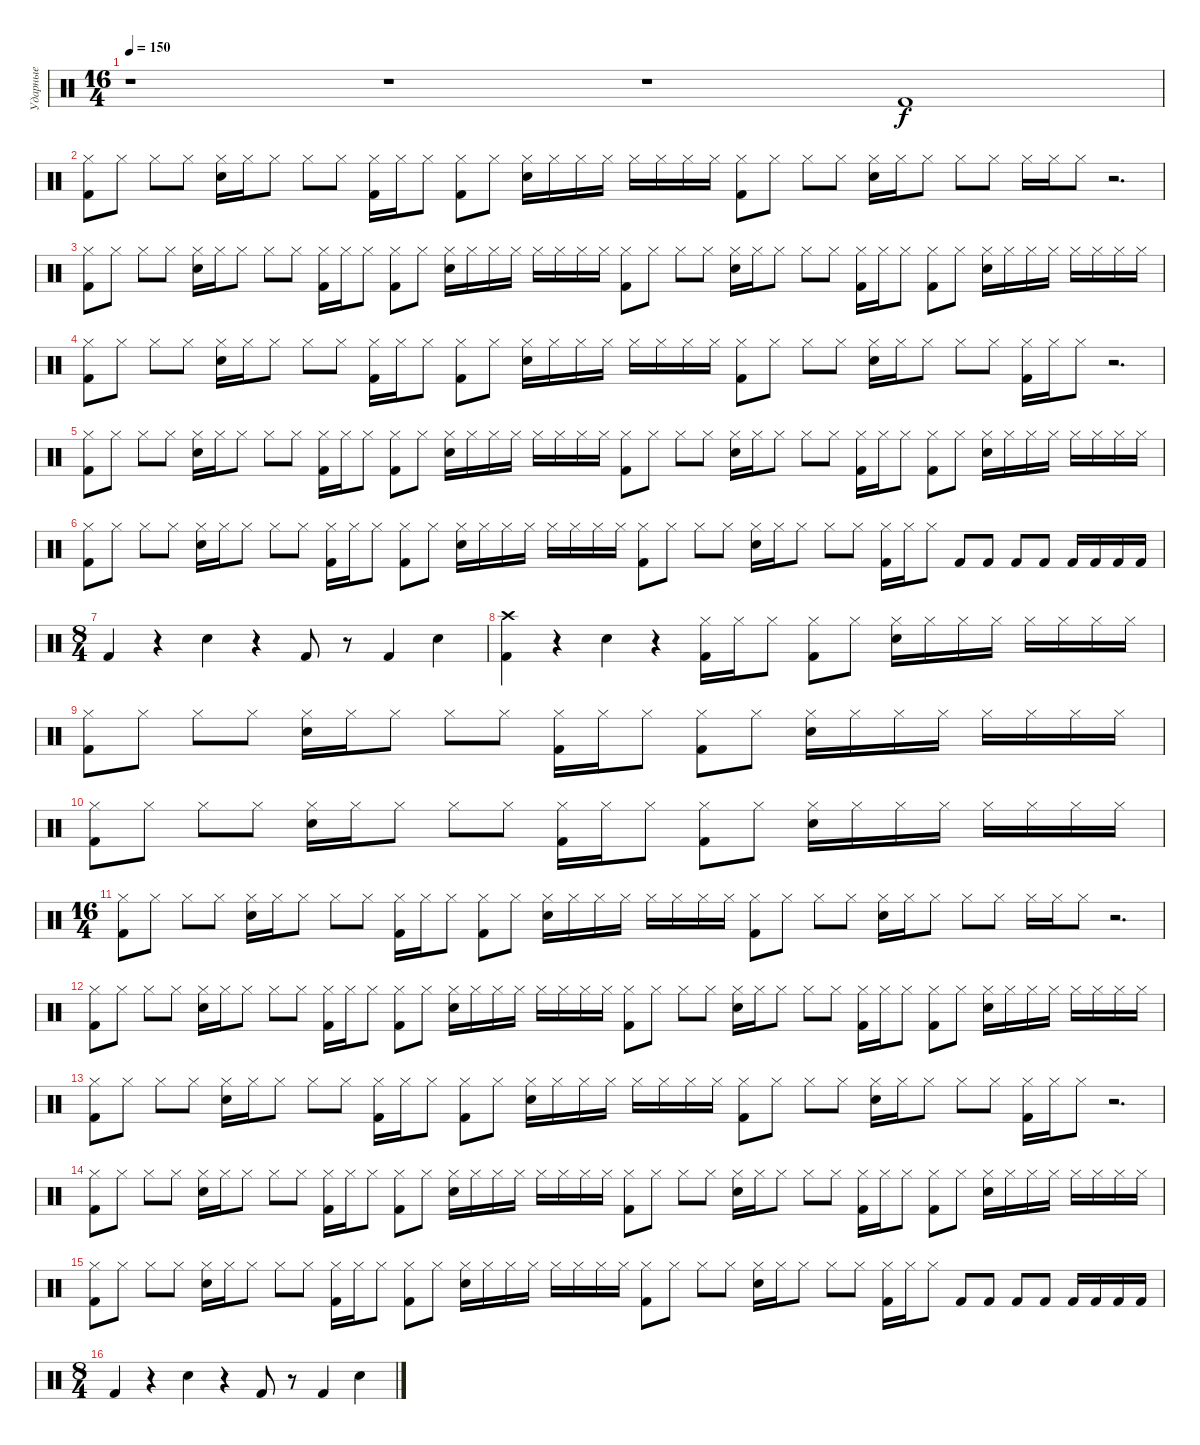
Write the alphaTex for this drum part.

\track ("Ударные" "Ударные") {instrument percussion}
\staff {score}
\articulation defaults
\ts (16 4)
\tempo 150
\clef neutral
\ks c
r.1{dy f} r.1 r.1 "Kick (hit) 2".1 |
("Hi-Hat (closed)" "Kick (hit) 2").8 "Hi-Hat (closed)".8 "Hi-Hat (closed)".8 "Hi-Hat (closed)".8 ("Hi-Hat (closed)" "Electric Snare (hit)").16 "Hi-Hat (closed)".16 "Hi-Hat (closed)".8 "Hi-Hat (closed)".8 "Hi-Hat (closed)".8 ("Hi-Hat (closed)" "Kick (hit) 2").16 "Hi-Hat (closed)".16 "Hi-Hat (closed)".8 ("Hi-Hat (closed)" "Kick (hit) 2").8 "Hi-Hat (closed)".8 ("Hi-Hat (closed)" "Electric Snare (hit)").16 "Hi-Hat (closed)".16 "Hi-Hat (closed)".16 "Hi-Hat (closed)".16 "Hi-Hat (closed)".16 "Hi-Hat (closed)".16 "Hi-Hat (closed)".16 "Hi-Hat (closed)".16 ("Hi-Hat (closed)" "Kick (hit) 2").8 "Hi-Hat (closed)".8 "Hi-Hat (closed)".8 "Hi-Hat (closed)".8 ("Hi-Hat (closed)" "Electric Snare (hit)").16 "Hi-Hat (closed)".16 "Hi-Hat (closed)".8 "Hi-Hat (closed)".8 "Hi-Hat (closed)".8 "Hi-Hat (closed)".16 "Hi-Hat (closed)".16 "Hi-Hat (closed)".8 r.2{d} |
("Hi-Hat (closed)" "Kick (hit) 2").8 "Hi-Hat (closed)".8 "Hi-Hat (closed)".8 "Hi-Hat (closed)".8 ("Hi-Hat (closed)" "Electric Snare (hit)").16 "Hi-Hat (closed)".16 "Hi-Hat (closed)".8 "Hi-Hat (closed)".8 "Hi-Hat (closed)".8 ("Hi-Hat (closed)" "Kick (hit) 2").16 "Hi-Hat (closed)".16 "Hi-Hat (closed)".8 ("Hi-Hat (closed)" "Kick (hit) 2").8 "Hi-Hat (closed)".8 ("Hi-Hat (closed)" "Electric Snare (hit)").16 "Hi-Hat (closed)".16 "Hi-Hat (closed)".16 "Hi-Hat (closed)".16 "Hi-Hat (closed)".16 "Hi-Hat (closed)".16 "Hi-Hat (closed)".16 "Hi-Hat (closed)".16 ("Hi-Hat (closed)" "Kick (hit) 2").8 "Hi-Hat (closed)".8 "Hi-Hat (closed)".8 "Hi-Hat (closed)".8 ("Hi-Hat (closed)" "Electric Snare (hit)").16 "Hi-Hat (closed)".16 "Hi-Hat (closed)".8 "Hi-Hat (closed)".8 "Hi-Hat (closed)".8 ("Hi-Hat (closed)" "Kick (hit) 2").16 "Hi-Hat (closed)".16 "Hi-Hat (closed)".8 ("Hi-Hat (closed)" "Kick (hit) 2").8 "Hi-Hat (closed)".8 ("Hi-Hat (closed)" "Electric Snare (hit)").16 "Hi-Hat (closed)".16 "Hi-Hat (closed)".16 "Hi-Hat (closed)".16 "Hi-Hat (closed)".16 "Hi-Hat (closed)".16 "Hi-Hat (closed)".16 "Hi-Hat (closed)".16 |
("Hi-Hat (closed)" "Kick (hit) 2").8 "Hi-Hat (closed)".8 "Hi-Hat (closed)".8 "Hi-Hat (closed)".8 ("Hi-Hat (closed)" "Electric Snare (hit)").16 "Hi-Hat (closed)".16 "Hi-Hat (closed)".8 "Hi-Hat (closed)".8 "Hi-Hat (closed)".8 ("Hi-Hat (closed)" "Kick (hit) 2").16 "Hi-Hat (closed)".16 "Hi-Hat (closed)".8 ("Hi-Hat (closed)" "Kick (hit) 2").8 "Hi-Hat (closed)".8 ("Hi-Hat (closed)" "Electric Snare (hit)").16 "Hi-Hat (closed)".16 "Hi-Hat (closed)".16 "Hi-Hat (closed)".16 "Hi-Hat (closed)".16 "Hi-Hat (closed)".16 "Hi-Hat (closed)".16 "Hi-Hat (closed)".16 ("Hi-Hat (closed)" "Kick (hit) 2").8 "Hi-Hat (closed)".8 "Hi-Hat (closed)".8 "Hi-Hat (closed)".8 ("Hi-Hat (closed)" "Electric Snare (hit)").16 "Hi-Hat (closed)".16 "Hi-Hat (closed)".8 "Hi-Hat (closed)".8 "Hi-Hat (closed)".8 ("Hi-Hat (closed)" "Kick (hit) 2").16 "Hi-Hat (closed)".16 "Hi-Hat (closed)".8 r.2{d} |
("Hi-Hat (closed)" "Kick (hit) 2").8 "Hi-Hat (closed)".8 "Hi-Hat (closed)".8 "Hi-Hat (closed)".8 ("Hi-Hat (closed)" "Electric Snare (hit)").16 "Hi-Hat (closed)".16 "Hi-Hat (closed)".8 "Hi-Hat (closed)".8 "Hi-Hat (closed)".8 ("Hi-Hat (closed)" "Kick (hit) 2").16 "Hi-Hat (closed)".16 "Hi-Hat (closed)".8 ("Hi-Hat (closed)" "Kick (hit) 2").8 "Hi-Hat (closed)".8 ("Hi-Hat (closed)" "Electric Snare (hit)").16 "Hi-Hat (closed)".16 "Hi-Hat (closed)".16 "Hi-Hat (closed)".16 "Hi-Hat (closed)".16 "Hi-Hat (closed)".16 "Hi-Hat (closed)".16 "Hi-Hat (closed)".16 ("Hi-Hat (closed)" "Kick (hit) 2").8 "Hi-Hat (closed)".8 "Hi-Hat (closed)".8 "Hi-Hat (closed)".8 ("Hi-Hat (closed)" "Electric Snare (hit)").16 "Hi-Hat (closed)".16 "Hi-Hat (closed)".8 "Hi-Hat (closed)".8 "Hi-Hat (closed)".8 ("Hi-Hat (closed)" "Kick (hit) 2").16 "Hi-Hat (closed)".16 "Hi-Hat (closed)".8 ("Hi-Hat (closed)" "Kick (hit) 2").8 "Hi-Hat (closed)".8 ("Hi-Hat (closed)" "Electric Snare (hit)").16 "Hi-Hat (closed)".16 "Hi-Hat (closed)".16 "Hi-Hat (closed)".16 "Hi-Hat (closed)".16 "Hi-Hat (closed)".16 "Hi-Hat (closed)".16 "Hi-Hat (closed)".16 |
("Hi-Hat (closed)" "Kick (hit) 2").8 "Hi-Hat (closed)".8 "Hi-Hat (closed)".8 "Hi-Hat (closed)".8 ("Hi-Hat (closed)" "Electric Snare (hit)").16 "Hi-Hat (closed)".16 "Hi-Hat (closed)".8 "Hi-Hat (closed)".8 "Hi-Hat (closed)".8 ("Hi-Hat (closed)" "Kick (hit) 2").16 "Hi-Hat (closed)".16 "Hi-Hat (closed)".8 ("Hi-Hat (closed)" "Kick (hit) 2").8 "Hi-Hat (closed)".8 ("Hi-Hat (closed)" "Electric Snare (hit)").16 "Hi-Hat (closed)".16 "Hi-Hat (closed)".16 "Hi-Hat (closed)".16 "Hi-Hat (closed)".16 "Hi-Hat (closed)".16 "Hi-Hat (closed)".16 "Hi-Hat (closed)".16 ("Hi-Hat (closed)" "Kick (hit) 2").8 "Hi-Hat (closed)".8 "Hi-Hat (closed)".8 "Hi-Hat (closed)".8 ("Hi-Hat (closed)" "Electric Snare (hit)").16 "Hi-Hat (closed)".16 "Hi-Hat (closed)".8 "Hi-Hat (closed)".8 "Hi-Hat (closed)".8 ("Hi-Hat (closed)" "Kick (hit) 2").16 "Hi-Hat (closed)".16 "Hi-Hat (closed)".8 "Kick (hit) 2".8 "Kick (hit) 2".8 "Kick (hit) 2".8 "Kick (hit) 2".8 "Kick (hit) 2".16 "Kick (hit) 2".16 "Kick (hit) 2".16 "Kick (hit) 2".16 |
\ts (8 4)
"Kick (hit) 2".4{volume 7} r.4 "Electric Snare (hit)".4 r.4 "Kick (hit) 2".8 r.8 "Kick (hit) 2".4 "Electric Snare (hit)".4 |
("Crash high (hit)" "Kick (hit) 2").4 r.4 "Electric Snare (hit)".4 r.4 ("Hi-Hat (closed)" "Kick (hit) 2").16{volume 13} "Hi-Hat (closed)".16 "Hi-Hat (closed)".8 ("Hi-Hat (closed)" "Kick (hit) 2").8 "Hi-Hat (closed)".8 ("Hi-Hat (closed)" "Electric Snare (hit)").16 "Hi-Hat (closed)".16 "Hi-Hat (closed)".16 "Hi-Hat (closed)".16 "Hi-Hat (closed)".16 "Hi-Hat (closed)".16 "Hi-Hat (closed)".16 "Hi-Hat (closed)".16 |
("Hi-Hat (closed)" "Kick (hit) 2").8 "Hi-Hat (closed)".8 "Hi-Hat (closed)".8 "Hi-Hat (closed)".8 ("Hi-Hat (closed)" "Electric Snare (hit)").16 "Hi-Hat (closed)".16 "Hi-Hat (closed)".8 "Hi-Hat (closed)".8 "Hi-Hat (closed)".8 ("Hi-Hat (closed)" "Kick (hit) 2").16 "Hi-Hat (closed)".16 "Hi-Hat (closed)".8 ("Hi-Hat (closed)" "Kick (hit) 2").8 "Hi-Hat (closed)".8 ("Hi-Hat (closed)" "Electric Snare (hit)").16 "Hi-Hat (closed)".16 "Hi-Hat (closed)".16 "Hi-Hat (closed)".16 "Hi-Hat (closed)".16 "Hi-Hat (closed)".16 "Hi-Hat (closed)".16 "Hi-Hat (closed)".16 |
("Hi-Hat (closed)" "Kick (hit) 2").8 "Hi-Hat (closed)".8 "Hi-Hat (closed)".8 "Hi-Hat (closed)".8 ("Hi-Hat (closed)" "Electric Snare (hit)").16 "Hi-Hat (closed)".16 "Hi-Hat (closed)".8 "Hi-Hat (closed)".8 "Hi-Hat (closed)".8 ("Hi-Hat (closed)" "Kick (hit) 2").16 "Hi-Hat (closed)".16 "Hi-Hat (closed)".8 ("Hi-Hat (closed)" "Kick (hit) 2").8 "Hi-Hat (closed)".8 ("Hi-Hat (closed)" "Electric Snare (hit)").16 "Hi-Hat (closed)".16 "Hi-Hat (closed)".16 "Hi-Hat (closed)".16 "Hi-Hat (closed)".16 "Hi-Hat (closed)".16 "Hi-Hat (closed)".16 "Hi-Hat (closed)".16 |
\ts (16 4)
("Hi-Hat (closed)" "Kick (hit) 2").8 "Hi-Hat (closed)".8 "Hi-Hat (closed)".8 "Hi-Hat (closed)".8 ("Hi-Hat (closed)" "Electric Snare (hit)").16 "Hi-Hat (closed)".16 "Hi-Hat (closed)".8 "Hi-Hat (closed)".8 "Hi-Hat (closed)".8 ("Hi-Hat (closed)" "Kick (hit) 2").16 "Hi-Hat (closed)".16 "Hi-Hat (closed)".8 ("Hi-Hat (closed)" "Kick (hit) 2").8 "Hi-Hat (closed)".8 ("Hi-Hat (closed)" "Electric Snare (hit)").16 "Hi-Hat (closed)".16 "Hi-Hat (closed)".16 "Hi-Hat (closed)".16 "Hi-Hat (closed)".16 "Hi-Hat (closed)".16 "Hi-Hat (closed)".16 "Hi-Hat (closed)".16 ("Hi-Hat (closed)" "Kick (hit) 2").8 "Hi-Hat (closed)".8 "Hi-Hat (closed)".8 "Hi-Hat (closed)".8 ("Hi-Hat (closed)" "Electric Snare (hit)").16 "Hi-Hat (closed)".16 "Hi-Hat (closed)".8 "Hi-Hat (closed)".8 "Hi-Hat (closed)".8 "Hi-Hat (closed)".16 "Hi-Hat (closed)".16 "Hi-Hat (closed)".8 r.2{d} |
("Hi-Hat (closed)" "Kick (hit) 2").8 "Hi-Hat (closed)".8 "Hi-Hat (closed)".8 "Hi-Hat (closed)".8 ("Hi-Hat (closed)" "Electric Snare (hit)").16 "Hi-Hat (closed)".16 "Hi-Hat (closed)".8 "Hi-Hat (closed)".8 "Hi-Hat (closed)".8 ("Hi-Hat (closed)" "Kick (hit) 2").16 "Hi-Hat (closed)".16 "Hi-Hat (closed)".8 ("Hi-Hat (closed)" "Kick (hit) 2").8 "Hi-Hat (closed)".8 ("Hi-Hat (closed)" "Electric Snare (hit)").16 "Hi-Hat (closed)".16 "Hi-Hat (closed)".16 "Hi-Hat (closed)".16 "Hi-Hat (closed)".16 "Hi-Hat (closed)".16 "Hi-Hat (closed)".16 "Hi-Hat (closed)".16 ("Hi-Hat (closed)" "Kick (hit) 2").8 "Hi-Hat (closed)".8 "Hi-Hat (closed)".8 "Hi-Hat (closed)".8 ("Hi-Hat (closed)" "Electric Snare (hit)").16 "Hi-Hat (closed)".16 "Hi-Hat (closed)".8 "Hi-Hat (closed)".8 "Hi-Hat (closed)".8 ("Hi-Hat (closed)" "Kick (hit) 2").16 "Hi-Hat (closed)".16 "Hi-Hat (closed)".8 ("Hi-Hat (closed)" "Kick (hit) 2").8 "Hi-Hat (closed)".8 ("Hi-Hat (closed)" "Electric Snare (hit)").16 "Hi-Hat (closed)".16 "Hi-Hat (closed)".16 "Hi-Hat (closed)".16 "Hi-Hat (closed)".16 "Hi-Hat (closed)".16 "Hi-Hat (closed)".16 "Hi-Hat (closed)".16 |
("Hi-Hat (closed)" "Kick (hit) 2").8 "Hi-Hat (closed)".8 "Hi-Hat (closed)".8 "Hi-Hat (closed)".8 ("Hi-Hat (closed)" "Electric Snare (hit)").16 "Hi-Hat (closed)".16 "Hi-Hat (closed)".8 "Hi-Hat (closed)".8 "Hi-Hat (closed)".8 ("Hi-Hat (closed)" "Kick (hit) 2").16 "Hi-Hat (closed)".16 "Hi-Hat (closed)".8 ("Hi-Hat (closed)" "Kick (hit) 2").8 "Hi-Hat (closed)".8 ("Hi-Hat (closed)" "Electric Snare (hit)").16 "Hi-Hat (closed)".16 "Hi-Hat (closed)".16 "Hi-Hat (closed)".16 "Hi-Hat (closed)".16 "Hi-Hat (closed)".16 "Hi-Hat (closed)".16 "Hi-Hat (closed)".16 ("Hi-Hat (closed)" "Kick (hit) 2").8 "Hi-Hat (closed)".8 "Hi-Hat (closed)".8 "Hi-Hat (closed)".8 ("Hi-Hat (closed)" "Electric Snare (hit)").16 "Hi-Hat (closed)".16 "Hi-Hat (closed)".8 "Hi-Hat (closed)".8 "Hi-Hat (closed)".8 ("Hi-Hat (closed)" "Kick (hit) 2").16 "Hi-Hat (closed)".16 "Hi-Hat (closed)".8 r.2{d} |
("Hi-Hat (closed)" "Kick (hit) 2").8 "Hi-Hat (closed)".8 "Hi-Hat (closed)".8 "Hi-Hat (closed)".8 ("Hi-Hat (closed)" "Electric Snare (hit)").16 "Hi-Hat (closed)".16 "Hi-Hat (closed)".8 "Hi-Hat (closed)".8 "Hi-Hat (closed)".8 ("Hi-Hat (closed)" "Kick (hit) 2").16 "Hi-Hat (closed)".16 "Hi-Hat (closed)".8 ("Hi-Hat (closed)" "Kick (hit) 2").8 "Hi-Hat (closed)".8 ("Hi-Hat (closed)" "Electric Snare (hit)").16 "Hi-Hat (closed)".16 "Hi-Hat (closed)".16 "Hi-Hat (closed)".16 "Hi-Hat (closed)".16 "Hi-Hat (closed)".16 "Hi-Hat (closed)".16 "Hi-Hat (closed)".16 ("Hi-Hat (closed)" "Kick (hit) 2").8 "Hi-Hat (closed)".8 "Hi-Hat (closed)".8 "Hi-Hat (closed)".8 ("Hi-Hat (closed)" "Electric Snare (hit)").16 "Hi-Hat (closed)".16 "Hi-Hat (closed)".8 "Hi-Hat (closed)".8 "Hi-Hat (closed)".8 ("Hi-Hat (closed)" "Kick (hit) 2").16 "Hi-Hat (closed)".16 "Hi-Hat (closed)".8 ("Hi-Hat (closed)" "Kick (hit) 2").8 "Hi-Hat (closed)".8 ("Hi-Hat (closed)" "Electric Snare (hit)").16 "Hi-Hat (closed)".16 "Hi-Hat (closed)".16 "Hi-Hat (closed)".16 "Hi-Hat (closed)".16 "Hi-Hat (closed)".16 "Hi-Hat (closed)".16 "Hi-Hat (closed)".16 |
("Hi-Hat (closed)" "Kick (hit) 2").8 "Hi-Hat (closed)".8 "Hi-Hat (closed)".8 "Hi-Hat (closed)".8 ("Hi-Hat (closed)" "Electric Snare (hit)").16 "Hi-Hat (closed)".16 "Hi-Hat (closed)".8 "Hi-Hat (closed)".8 "Hi-Hat (closed)".8 ("Hi-Hat (closed)" "Kick (hit) 2").16 "Hi-Hat (closed)".16 "Hi-Hat (closed)".8 ("Hi-Hat (closed)" "Kick (hit) 2").8 "Hi-Hat (closed)".8 ("Hi-Hat (closed)" "Electric Snare (hit)").16 "Hi-Hat (closed)".16 "Hi-Hat (closed)".16 "Hi-Hat (closed)".16 "Hi-Hat (closed)".16 "Hi-Hat (closed)".16 "Hi-Hat (closed)".16 "Hi-Hat (closed)".16 ("Hi-Hat (closed)" "Kick (hit) 2").8 "Hi-Hat (closed)".8 "Hi-Hat (closed)".8 "Hi-Hat (closed)".8 ("Hi-Hat (closed)" "Electric Snare (hit)").16 "Hi-Hat (closed)".16 "Hi-Hat (closed)".8 "Hi-Hat (closed)".8 "Hi-Hat (closed)".8 ("Hi-Hat (closed)" "Kick (hit) 2").16 "Hi-Hat (closed)".16 "Hi-Hat (closed)".8 "Kick (hit) 2".8 "Kick (hit) 2".8 "Kick (hit) 2".8 "Kick (hit) 2".8 "Kick (hit) 2".16 "Kick (hit) 2".16 "Kick (hit) 2".16 "Kick (hit) 2".16 |
\ts (8 4)
"Kick (hit) 2".4{volume 7} r.4 "Electric Snare (hit)".4 r.4 "Kick (hit) 2".8 r.8 "Kick (hit) 2".4 "Electric Snare (hit)".4
